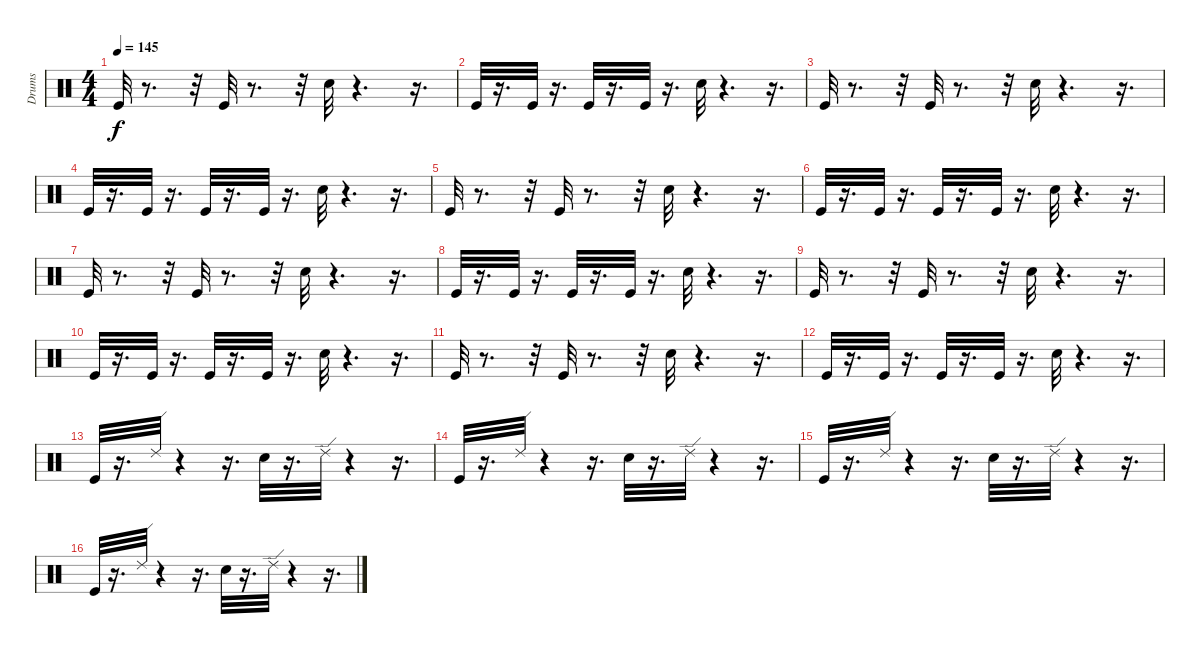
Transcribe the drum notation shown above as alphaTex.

\track ("Drums" "Drums") {instrument percussion}
\staff {score}
\articulation defaults
\ts (4 4)
\tempo 145
\clef neutral
\ks c "Kick (hit)".32{dy f}
r.8{d} r.32 "Kick (hit)".32 r.8{d} r.32 "Snare (hit) 2".32 r.4{d} r.16{d} |
"Kick (hit)".32 r.16{d} "Kick (hit)".32 r.16{d} "Kick (hit)".32 r.16{d} "Kick (hit)".32 r.16{d} "Snare (hit) 2".32 r.4{d} r.16{d} |
"Kick (hit)".32 r.8{d} r.32 "Kick (hit)".32 r.8{d} r.32 "Snare (hit) 2".32 r.4{d} r.16{d} |
"Kick (hit)".32 r.16{d} "Kick (hit)".32 r.16{d} "Kick (hit)".32 r.16{d} "Kick (hit)".32 r.16{d} "Snare (hit) 2".32 r.4{d} r.16{d} |
"Kick (hit)".32 r.8{d} r.32 "Kick (hit)".32 r.8{d} r.32 "Snare (hit) 2".32 r.4{d} r.16{d} |
"Kick (hit)".32 r.16{d} "Kick (hit)".32 r.16{d} "Kick (hit)".32 r.16{d} "Kick (hit)".32 r.16{d} "Snare (hit) 2".32 r.4{d} r.16{d} |
"Kick (hit)".32 r.8{d} r.32 "Kick (hit)".32 r.8{d} r.32 "Snare (hit) 2".32 r.4{d} r.16{d} |
"Kick (hit)".32 r.16{d} "Kick (hit)".32 r.16{d} "Kick (hit)".32 r.16{d} "Kick (hit)".32 r.16{d} "Snare (hit) 2".32 r.4{d} r.16{d} |
"Kick (hit)".32 r.8{d} r.32 "Kick (hit)".32 r.8{d} r.32 "Snare (hit) 2".32 r.4{d} r.16{d} |
"Kick (hit)".32 r.16{d} "Kick (hit)".32 r.16{d} "Kick (hit)".32 r.16{d} "Kick (hit)".32 r.16{d} "Snare (hit) 2".32 r.4{d} r.16{d} |
"Kick (hit)".32 r.8{d} r.32 "Kick (hit)".32 r.8{d} r.32 "Snare (hit) 2".32 r.4{d} r.16{d} |
"Kick (hit)".32 r.16{d} "Kick (hit)".32 r.16{d} "Kick (hit)".32 r.16{d} "Kick (hit)".32 r.16{d} "Snare (hit) 2".32 r.4{d} r.16{d} |
"Kick (hit)".32 r.16{d} "Ride (edge) 2".32 r.4 r.16{d} "Snare (hit) 2".32 r.16{d} "Ride (edge) 2".32 r.4 r.16{d} |
"Kick (hit)".32 r.16{d} "Ride (edge) 2".32 r.4 r.16{d} "Snare (hit) 2".32 r.16{d} "Ride (edge) 2".32 r.4 r.16{d} |
"Kick (hit)".32 r.16{d} "Ride (edge) 2".32 r.4 r.16{d} "Snare (hit) 2".32 r.16{d} "Ride (edge) 2".32 r.4 r.16{d} |
"Kick (hit)".32 r.16{d} "Ride (edge) 2".32 r.4 r.16{d} "Snare (hit) 2".32 r.16{d} "Ride (edge) 2".32 r.4 r.16{d}
